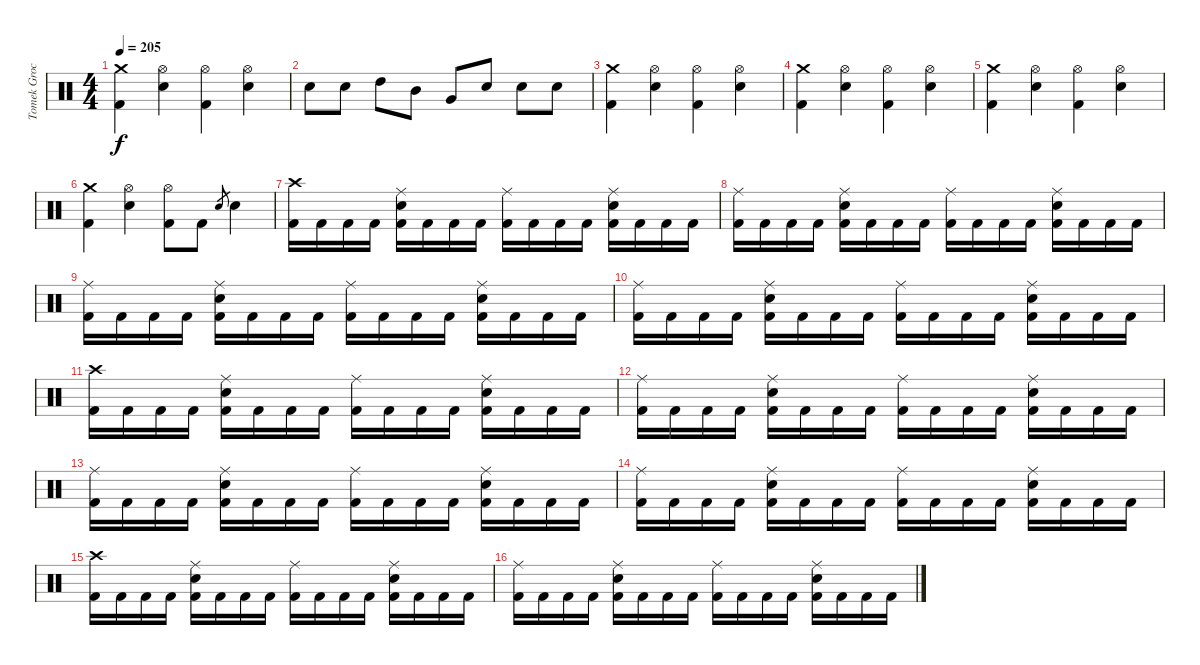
\track ("Tomek Grochowski" "Tomek Groc") {instrument percussion}
\staff {score}
\articulation defaults
\ts (4 4)
\tempo 205
\clef neutral
\ks c
("Crash medium (hit)" "Kick (hit) 2").4{dy f} ("Hi-Hat (open)" "Electric Snare (hit)").4 ("Hi-Hat (open)" "Kick (hit) 2").4 ("Hi-Hat (open)" "Electric Snare (hit)").4 |
"Electric Snare (hit)".8 "Electric Snare (hit)".8 "High Tom (hit)".8 "Mid Tom (hit)".8 "Very Low Tom (hit)".8 "Electric Snare (hit)".8 "Electric Snare (hit)".8 "Electric Snare (hit)".8 |
("Crash medium (hit)" "Kick (hit) 2").4 ("Hi-Hat (open)" "Electric Snare (hit)").4 ("Hi-Hat (open)" "Kick (hit) 2").4 ("Hi-Hat (open)" "Electric Snare (hit)").4 |
("Crash medium (hit)" "Kick (hit) 2").4 ("Hi-Hat (open)" "Electric Snare (hit)").4 ("Hi-Hat (open)" "Kick (hit) 2").4 ("Hi-Hat (open)" "Electric Snare (hit)").4 |
("Crash medium (hit)" "Kick (hit) 2").4 ("Hi-Hat (open)" "Electric Snare (hit)").4 ("Hi-Hat (open)" "Kick (hit) 2").4 ("Hi-Hat (open)" "Electric Snare (hit)").4 |
("Crash medium (hit)" "Kick (hit) 2").4 ("Hi-Hat (open)" "Electric Snare (hit)").4 ("Hi-Hat (open)" "Kick (hit) 2").8 "Kick (hit) 2".8 "Electric Snare (hit)".8{gr} "Electric Snare (hit)".4 |
("Crash high (hit)" "Kick (hit) 2").16 "Kick (hit) 2".16 "Kick (hit) 2".16 "Kick (hit) 2".16 ("Ride (middle)" "Electric Snare (hit)" "Kick (hit) 2").16 "Kick (hit) 2".16 "Kick (hit) 2".16 "Kick (hit) 2".16 ("Ride (middle)" "Kick (hit) 2").16 "Kick (hit) 2".16 "Kick (hit) 2".16 "Kick (hit) 2".16 ("Ride (middle)" "Electric Snare (hit)" "Kick (hit) 2").16 "Kick (hit) 2".16 "Kick (hit) 2".16 "Kick (hit) 2".16 |
("Ride (middle)" "Kick (hit) 2").16 "Kick (hit) 2".16 "Kick (hit) 2".16 "Kick (hit) 2".16 ("Ride (middle)" "Electric Snare (hit)" "Kick (hit) 2").16 "Kick (hit) 2".16 "Kick (hit) 2".16 "Kick (hit) 2".16 ("Ride (middle)" "Kick (hit) 2").16 "Kick (hit) 2".16 "Kick (hit) 2".16 "Kick (hit) 2".16 ("Ride (middle)" "Electric Snare (hit)" "Kick (hit) 2").16 "Kick (hit) 2".16 "Kick (hit) 2".16 "Kick (hit) 2".16 |
("Ride (middle)" "Kick (hit) 2").16 "Kick (hit) 2".16 "Kick (hit) 2".16 "Kick (hit) 2".16 ("Ride (middle)" "Electric Snare (hit)" "Kick (hit) 2").16 "Kick (hit) 2".16 "Kick (hit) 2".16 "Kick (hit) 2".16 ("Ride (middle)" "Kick (hit) 2").16 "Kick (hit) 2".16 "Kick (hit) 2".16 "Kick (hit) 2".16 ("Ride (middle)" "Electric Snare (hit)" "Kick (hit) 2").16 "Kick (hit) 2".16 "Kick (hit) 2".16 "Kick (hit) 2".16 |
("Ride (middle)" "Kick (hit) 2").16 "Kick (hit) 2".16 "Kick (hit) 2".16 "Kick (hit) 2".16 ("Ride (middle)" "Electric Snare (hit)" "Kick (hit) 2").16 "Kick (hit) 2".16 "Kick (hit) 2".16 "Kick (hit) 2".16 ("Ride (middle)" "Kick (hit) 2").16 "Kick (hit) 2".16 "Kick (hit) 2".16 "Kick (hit) 2".16 ("Ride (middle)" "Electric Snare (hit)" "Kick (hit) 2").16 "Kick (hit) 2".16 "Kick (hit) 2".16 "Kick (hit) 2".16 |
("Crash high (hit)" "Kick (hit) 2").16 "Kick (hit) 2".16 "Kick (hit) 2".16 "Kick (hit) 2".16 ("Ride (middle)" "Electric Snare (hit)" "Kick (hit) 2").16 "Kick (hit) 2".16 "Kick (hit) 2".16 "Kick (hit) 2".16 ("Ride (middle)" "Kick (hit) 2").16 "Kick (hit) 2".16 "Kick (hit) 2".16 "Kick (hit) 2".16 ("Ride (middle)" "Electric Snare (hit)" "Kick (hit) 2").16 "Kick (hit) 2".16 "Kick (hit) 2".16 "Kick (hit) 2".16 |
("Ride (middle)" "Kick (hit) 2").16 "Kick (hit) 2".16 "Kick (hit) 2".16 "Kick (hit) 2".16 ("Ride (middle)" "Electric Snare (hit)" "Kick (hit) 2").16 "Kick (hit) 2".16 "Kick (hit) 2".16 "Kick (hit) 2".16 ("Ride (middle)" "Kick (hit) 2").16 "Kick (hit) 2".16 "Kick (hit) 2".16 "Kick (hit) 2".16 ("Ride (middle)" "Electric Snare (hit)" "Kick (hit) 2").16 "Kick (hit) 2".16 "Kick (hit) 2".16 "Kick (hit) 2".16 |
("Ride (middle)" "Kick (hit) 2").16 "Kick (hit) 2".16 "Kick (hit) 2".16 "Kick (hit) 2".16 ("Ride (middle)" "Electric Snare (hit)" "Kick (hit) 2").16 "Kick (hit) 2".16 "Kick (hit) 2".16 "Kick (hit) 2".16 ("Ride (middle)" "Kick (hit) 2").16 "Kick (hit) 2".16 "Kick (hit) 2".16 "Kick (hit) 2".16 ("Ride (middle)" "Electric Snare (hit)" "Kick (hit) 2").16 "Kick (hit) 2".16 "Kick (hit) 2".16 "Kick (hit) 2".16 |
("Ride (middle)" "Kick (hit) 2").16 "Kick (hit) 2".16 "Kick (hit) 2".16 "Kick (hit) 2".16 ("Ride (middle)" "Electric Snare (hit)" "Kick (hit) 2").16 "Kick (hit) 2".16 "Kick (hit) 2".16 "Kick (hit) 2".16 ("Ride (middle)" "Kick (hit) 2").16 "Kick (hit) 2".16 "Kick (hit) 2".16 "Kick (hit) 2".16 ("Ride (middle)" "Electric Snare (hit)" "Kick (hit) 2").16 "Kick (hit) 2".16 "Kick (hit) 2".16 "Kick (hit) 2".16 |
("Crash high (hit)" "Kick (hit) 2").16 "Kick (hit) 2".16 "Kick (hit) 2".16 "Kick (hit) 2".16 ("Ride (middle)" "Electric Snare (hit)" "Kick (hit) 2").16 "Kick (hit) 2".16 "Kick (hit) 2".16 "Kick (hit) 2".16 ("Ride (middle)" "Kick (hit) 2").16 "Kick (hit) 2".16 "Kick (hit) 2".16 "Kick (hit) 2".16 ("Ride (middle)" "Electric Snare (hit)" "Kick (hit) 2").16 "Kick (hit) 2".16 "Kick (hit) 2".16 "Kick (hit) 2".16 |
("Ride (middle)" "Kick (hit) 2").16 "Kick (hit) 2".16 "Kick (hit) 2".16 "Kick (hit) 2".16 ("Ride (middle)" "Electric Snare (hit)" "Kick (hit) 2").16 "Kick (hit) 2".16 "Kick (hit) 2".16 "Kick (hit) 2".16 ("Ride (middle)" "Kick (hit) 2").16 "Kick (hit) 2".16 "Kick (hit) 2".16 "Kick (hit) 2".16 ("Ride (middle)" "Electric Snare (hit)" "Kick (hit) 2").16 "Kick (hit) 2".16 "Kick (hit) 2".16 "Kick (hit) 2".16
